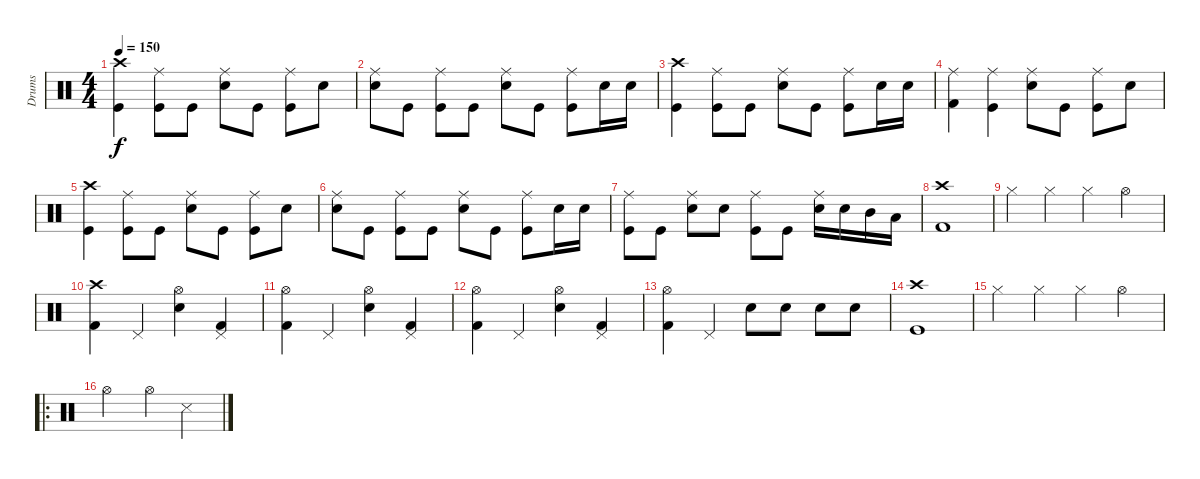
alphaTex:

\track ("Drums" "Drums") {instrument percussion}
\staff {score}
\articulation defaults
\ts (4 4)
\tempo 150
\clef neutral
\ks c
("Crash high (hit)" "Kick (hit)").4{dy f} ("Ride (middle)" "Kick (hit)").8 "Kick (hit)".8 ("Ride (middle)" "Snare (hit) 2").8 "Kick (hit)".8 ("Ride (middle)" "Kick (hit)").8 "Snare (hit) 2".8 |
("Ride (middle)" "Snare (hit) 2").8 "Kick (hit)".8 ("Ride (middle)" "Kick (hit)").8 "Kick (hit)".8 ("Ride (middle)" "Snare (hit) 2").8 "Kick (hit)".8 ("Ride (middle)" "Kick (hit)").8 "Snare (hit) 2".16 "Snare (hit) 2".16 |
("Crash high (hit)" "Kick (hit)").4 ("Ride (middle)" "Kick (hit)").8 "Kick (hit)".8 ("Ride (middle)" "Snare (hit) 2").8 "Kick (hit)".8 ("Ride (middle)" "Kick (hit)").8 "Snare (hit) 2".16 "Snare (hit) 2".16 |
("Ride (middle)" "Kick (hit) 2").4 ("Ride (middle)" "Kick (hit)").4 ("Ride (middle)" "Snare (hit) 2").8 "Kick (hit)".8 ("Ride (middle)" "Kick (hit)").8 "Snare (hit) 2".8 |
("Crash high (hit)" "Kick (hit)").4 ("Ride (middle)" "Kick (hit)").8 "Kick (hit)".8 ("Ride (middle)" "Snare (hit) 2").8 "Kick (hit)".8 ("Ride (middle)" "Kick (hit)").8 "Snare (hit) 2".8 |
("Ride (middle)" "Snare (hit) 2").8 "Kick (hit)".8 ("Ride (middle)" "Kick (hit)").8 "Kick (hit)".8 ("Ride (middle)" "Snare (hit) 2").8 "Kick (hit)".8 ("Ride (middle)" "Kick (hit)").8 "Snare (hit) 2".16 "Snare (hit) 2".16 |
("Ride (middle)" "Kick (hit)").8 "Kick (hit)".8 ("Ride (middle)" "Snare (hit) 2").8 "Snare (hit) 2".8 ("Ride (middle)" "Kick (hit)").8 "Kick (hit)".8 ("Ride (middle)" "Snare (hit) 2").16 "Snare (hit) 2".16 "Mid Tom (hit)".16 "Low Tom (hit)".16 |
("Crash high (hit)" "Kick (hit) 2").1 |
"Hi-Hat (closed)".4 "Hi-Hat (closed)".4 "Hi-Hat (closed)".4 "Hi-Hat (open)".4 |
("Crash high (hit)" "Kick (hit) 2").4 "Pedal Hi-Hat (hit)".4 ("Hi-Hat (open)" "Snare (hit) 2").4 ("Pedal Hi-Hat (hit)" "Kick (hit) 2").4 |
("Hi-Hat (open)" "Kick (hit) 2").4 "Pedal Hi-Hat (hit)".4 ("Hi-Hat (open)" "Snare (hit) 2").4 ("Pedal Hi-Hat (hit)" "Kick (hit) 2").4 |
("Hi-Hat (open)" "Kick (hit) 2").4 "Pedal Hi-Hat (hit)".4 ("Hi-Hat (open)" "Snare (hit) 2").4 ("Pedal Hi-Hat (hit)" "Kick (hit) 2").4 |
("Hi-Hat (open)" "Kick (hit) 2").4 "Pedal Hi-Hat (hit)".4 "Snare (hit) 2".8 "Snare (hit) 2".8 "Snare (hit) 2".8 "Snare (hit) 2".8 |
("Crash high (hit)" "Kick (hit)").1 |
"Hi-Hat (closed)".4 "Hi-Hat (closed)".4 "Hi-Hat (closed)".4 "Hi-Hat (open)".4 |
\ro "Hi-Hat (open)".2 "Hi-Hat (open)".4 "Snare (side stick) 3".4
